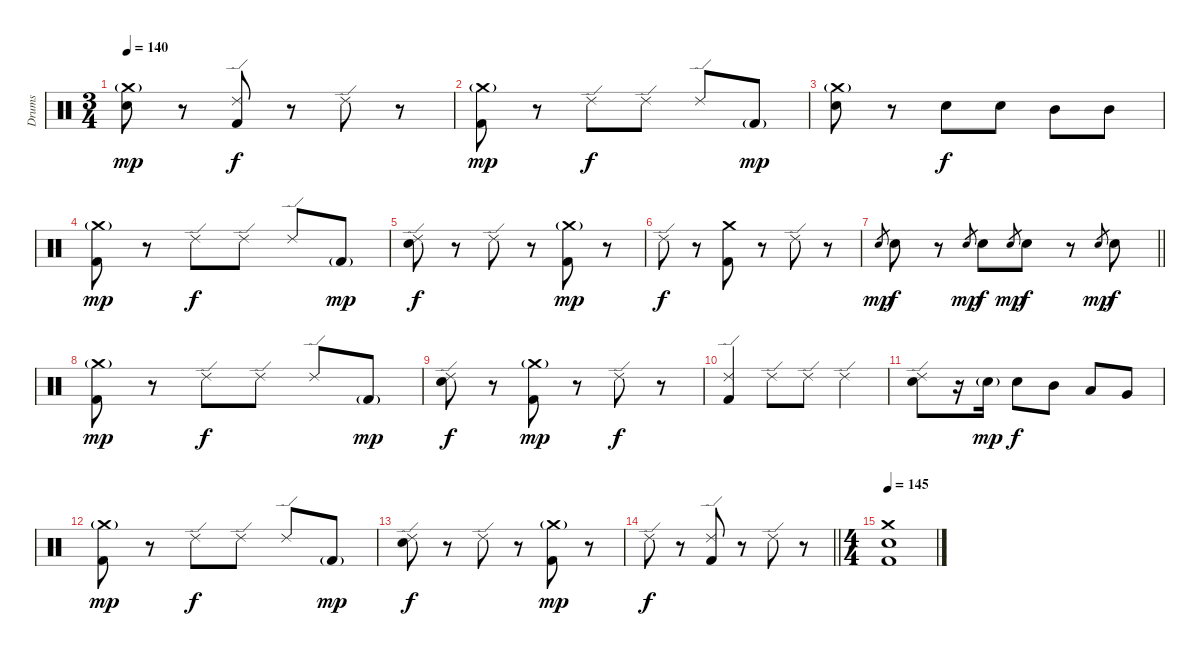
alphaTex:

\track ("Drums" "Drums") {instrument percussion}
\staff {score}
\articulation defaults
\ts (3 4)
\tempo 140
\clef neutral
\ks c
("Crash medium (hit)"{g} "Electric Snare (hit)").8{dy mp} r.8 ("Ride (edge) 2" "Kick (hit) 2").8{dy f} r.8 "Ride (edge) 2".8 r.8 |
("Crash medium (hit)"{g} "Kick (hit) 2").8{dy mp} r.8 "Ride (edge) 2".8{dy f} "Ride (edge) 2".8 "Ride (edge) 2".8 "Kick (hit) 2"{g}.8{dy mp} |
("Crash medium (hit)"{g} "Electric Snare (hit)").8 r.8 "Electric Snare (hit)".8{dy f} "Electric Snare (hit)".8 "Mid Tom (hit)".8 "Mid Tom (hit)".8 |
("Crash medium (hit)"{g} "Kick (hit) 2").8{dy mp} r.8 "Ride (edge) 2".8{dy f} "Ride (edge) 2".8 "Ride (edge) 2".8 "Kick (hit) 2"{g}.8{dy mp} |
("Ride (edge) 2" "Electric Snare (hit)").8{dy f} r.8 "Ride (edge) 2".8 r.8 ("Crash medium (hit)"{g} "Kick (hit) 2").8{dy mp} r.8 |
"Ride (edge) 2".8{dy f} r.8 ("Crash medium (hit)" "Kick (hit) 2").8 r.8 "Ride (edge) 2".8 r.8 |
\barLineRight lightlight "Electric Snare (hit)".8{gr dy mp} "Electric Snare (hit)".8{dy f}
r.8 "Electric Snare (hit)".8{gr dy mp} "Electric Snare (hit)".8{dy f} "Electric Snare (hit)".8{gr dy mp} "Electric Snare (hit)".8{dy f} r.8 "Electric Snare (hit)".8{gr dy mp} "Electric Snare (hit)".8{dy f} |
("Crash medium (hit)"{g} "Kick (hit) 2").8{dy mp} r.8 "Ride (edge) 2".8{dy f} "Ride (edge) 2".8 "Ride (edge) 2".8 "Kick (hit) 2"{g}.8{dy mp} |
("Ride (edge) 2" "Electric Snare (hit)").8{dy f} r.8 ("Crash medium (hit)"{g} "Kick (hit) 2").8{dy mp} r.8 "Ride (edge) 2".8{dy f} r.8 |
("Ride (edge) 2" "Kick (hit) 2").4 "Ride (edge) 2".8 "Ride (edge) 2".8 "Ride (edge) 2".4 |
("Ride (edge) 2" "Electric Snare (hit)").8 r.16 "Electric Snare (hit)"{g}.16{dy mp} "Electric Snare (hit)".8{dy f} "Mid Tom (hit)".8 "Low Tom (hit)".8 "Very Low Tom (hit)".8 |
("Crash medium (hit)"{g} "Kick (hit) 2").8{dy mp} r.8 "Ride (edge) 2".8{dy f} "Ride (edge) 2".8 "Ride (edge) 2".8 "Kick (hit) 2"{g}.8{dy mp} |
("Ride (edge) 2" "Electric Snare (hit)").8{dy f} r.8 "Ride (edge) 2".8 r.8 ("Crash medium (hit)"{g} "Kick (hit) 2").8{dy mp} r.8 |
\barLineRight lightlight "Ride (edge) 2".8{dy f}
r.8 ("Ride (edge) 2" "Kick (hit) 2").8 r.8 "Ride (edge) 2".8 r.8 |
\ts (4 4)
\tempo 145
("Crash medium (hit)" "Electric Snare (hit)" "Kick (hit) 2").1
